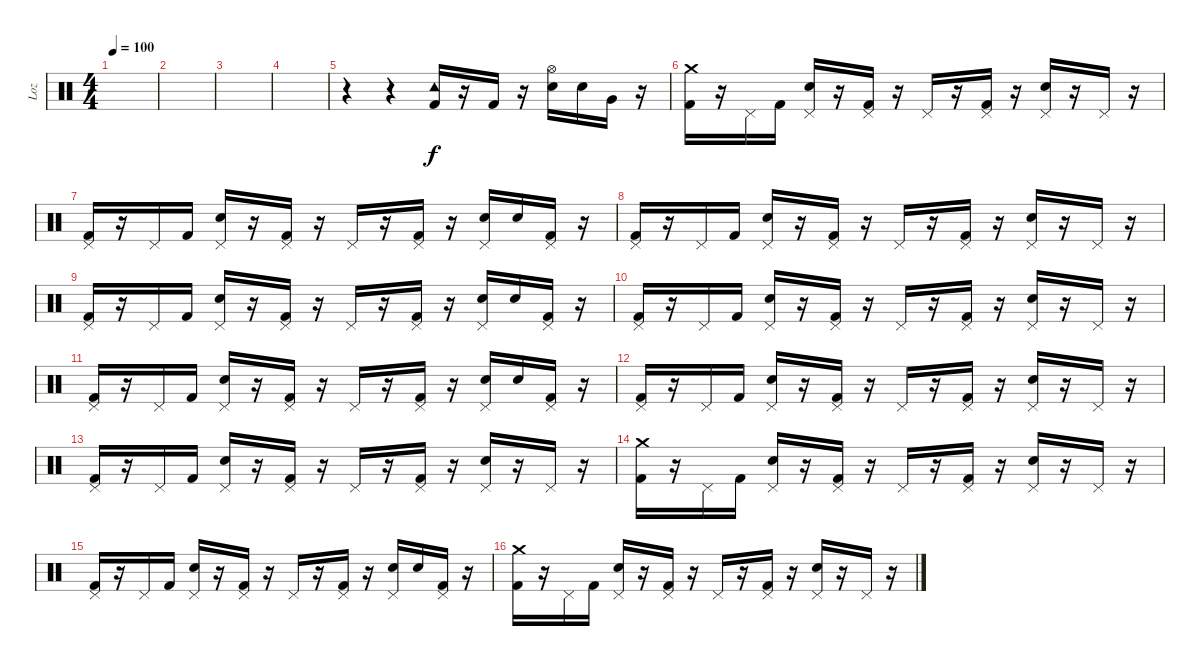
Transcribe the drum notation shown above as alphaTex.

\track ("Loz" "Loz") {instrument percussion}
\staff {score}
\articulation defaults
\ts (4 4)
\tempo 100
\clef neutral
\ks c
|
|
|
|
r.4 r.4 ("Tambourine (hit)" "Kick (hit) 2").16 r.16 "Kick (hit) 2".16 r.16 ("Hi-Hat (open)" "Electric Snare (hit)").16 "Electric Snare (hit)".16 "Very Low Tom (hit)".16 r.16 |
("Crash medium (hit)" "Kick (hit) 2").16 r.16 "Pedal Hi-Hat (hit)".16 "Kick (hit) 2".16 ("Pedal Hi-Hat (hit)" "Electric Snare (hit)").16 r.16 ("Pedal Hi-Hat (hit)" "Kick (hit) 2").16 r.16 "Pedal Hi-Hat (hit)".16 r.16 ("Pedal Hi-Hat (hit)" "Kick (hit) 2").16 r.16 ("Pedal Hi-Hat (hit)" "Electric Snare (hit)").16 r.16 "Pedal Hi-Hat (hit)".16 r.16 |
("Pedal Hi-Hat (hit)" "Kick (hit) 2").16 r.16 "Pedal Hi-Hat (hit)".16 "Kick (hit) 2".16 ("Pedal Hi-Hat (hit)" "Electric Snare (hit)").16 r.16 ("Pedal Hi-Hat (hit)" "Kick (hit) 2").16 r.16 "Pedal Hi-Hat (hit)".16 r.16 ("Pedal Hi-Hat (hit)" "Kick (hit) 2").16 r.16 ("Pedal Hi-Hat (hit)" "Electric Snare (hit)").16 "Electric Snare (hit)".16 ("Pedal Hi-Hat (hit)" "Kick (hit) 2").16 r.16 |
("Pedal Hi-Hat (hit)" "Kick (hit) 2").16 r.16 "Pedal Hi-Hat (hit)".16 "Kick (hit) 2".16 ("Pedal Hi-Hat (hit)" "Electric Snare (hit)").16 r.16 ("Pedal Hi-Hat (hit)" "Kick (hit) 2").16 r.16 "Pedal Hi-Hat (hit)".16 r.16 ("Pedal Hi-Hat (hit)" "Kick (hit) 2").16 r.16 ("Pedal Hi-Hat (hit)" "Electric Snare (hit)").16 r.16 "Pedal Hi-Hat (hit)".16 r.16 |
("Pedal Hi-Hat (hit)" "Kick (hit) 2").16 r.16 "Pedal Hi-Hat (hit)".16 "Kick (hit) 2".16 ("Pedal Hi-Hat (hit)" "Electric Snare (hit)").16 r.16 ("Pedal Hi-Hat (hit)" "Kick (hit) 2").16 r.16 "Pedal Hi-Hat (hit)".16 r.16 ("Pedal Hi-Hat (hit)" "Kick (hit) 2").16 r.16 ("Pedal Hi-Hat (hit)" "Electric Snare (hit)").16 "Electric Snare (hit)".16 ("Pedal Hi-Hat (hit)" "Kick (hit) 2").16 r.16 |
("Pedal Hi-Hat (hit)" "Kick (hit) 2").16 r.16 "Pedal Hi-Hat (hit)".16 "Kick (hit) 2".16 ("Pedal Hi-Hat (hit)" "Electric Snare (hit)").16 r.16 ("Pedal Hi-Hat (hit)" "Kick (hit) 2").16 r.16 "Pedal Hi-Hat (hit)".16 r.16 ("Pedal Hi-Hat (hit)" "Kick (hit) 2").16 r.16 ("Pedal Hi-Hat (hit)" "Electric Snare (hit)").16 r.16 "Pedal Hi-Hat (hit)".16 r.16 |
("Pedal Hi-Hat (hit)" "Kick (hit) 2").16 r.16 "Pedal Hi-Hat (hit)".16 "Kick (hit) 2".16 ("Pedal Hi-Hat (hit)" "Electric Snare (hit)").16 r.16 ("Pedal Hi-Hat (hit)" "Kick (hit) 2").16 r.16 "Pedal Hi-Hat (hit)".16 r.16 ("Pedal Hi-Hat (hit)" "Kick (hit) 2").16 r.16 ("Pedal Hi-Hat (hit)" "Electric Snare (hit)").16 "Electric Snare (hit)".16 ("Pedal Hi-Hat (hit)" "Kick (hit) 2").16 r.16 |
("Pedal Hi-Hat (hit)" "Kick (hit) 2").16 r.16 "Pedal Hi-Hat (hit)".16 "Kick (hit) 2".16 ("Pedal Hi-Hat (hit)" "Electric Snare (hit)").16 r.16 ("Pedal Hi-Hat (hit)" "Kick (hit) 2").16 r.16 "Pedal Hi-Hat (hit)".16 r.16 ("Pedal Hi-Hat (hit)" "Kick (hit) 2").16 r.16 ("Pedal Hi-Hat (hit)" "Electric Snare (hit)").16 r.16 "Pedal Hi-Hat (hit)".16 r.16 |
("Pedal Hi-Hat (hit)" "Kick (hit) 2").16 r.16 "Pedal Hi-Hat (hit)".16 "Kick (hit) 2".16 ("Pedal Hi-Hat (hit)" "Electric Snare (hit)").16 r.16 ("Pedal Hi-Hat (hit)" "Kick (hit) 2").16 r.16 "Pedal Hi-Hat (hit)".16 r.16 ("Pedal Hi-Hat (hit)" "Kick (hit) 2").16 r.16 ("Pedal Hi-Hat (hit)" "Electric Snare (hit)").16 r.16 "Pedal Hi-Hat (hit)".16 r.16 |
("Crash medium (hit)" "Kick (hit) 2").16 r.16 "Pedal Hi-Hat (hit)".16 "Kick (hit) 2".16 ("Pedal Hi-Hat (hit)" "Electric Snare (hit)").16 r.16 ("Pedal Hi-Hat (hit)" "Kick (hit) 2").16 r.16 "Pedal Hi-Hat (hit)".16 r.16 ("Pedal Hi-Hat (hit)" "Kick (hit) 2").16 r.16 ("Pedal Hi-Hat (hit)" "Electric Snare (hit)").16 r.16 "Pedal Hi-Hat (hit)".16 r.16 |
("Pedal Hi-Hat (hit)" "Kick (hit) 2").16 r.16 "Pedal Hi-Hat (hit)".16 "Kick (hit) 2".16 ("Pedal Hi-Hat (hit)" "Electric Snare (hit)").16 r.16 ("Pedal Hi-Hat (hit)" "Kick (hit) 2").16 r.16 "Pedal Hi-Hat (hit)".16 r.16 ("Pedal Hi-Hat (hit)" "Kick (hit) 2").16 r.16 ("Pedal Hi-Hat (hit)" "Electric Snare (hit)").16 "Electric Snare (hit)".16 ("Pedal Hi-Hat (hit)" "Kick (hit) 2").16 r.16 |
("Crash medium (hit)" "Kick (hit) 2").16 r.16 "Pedal Hi-Hat (hit)".16 "Kick (hit) 2".16 ("Pedal Hi-Hat (hit)" "Electric Snare (hit)").16 r.16 ("Pedal Hi-Hat (hit)" "Kick (hit) 2").16 r.16 "Pedal Hi-Hat (hit)".16 r.16 ("Pedal Hi-Hat (hit)" "Kick (hit) 2").16 r.16 ("Pedal Hi-Hat (hit)" "Electric Snare (hit)").16 r.16 "Pedal Hi-Hat (hit)".16 r.16
